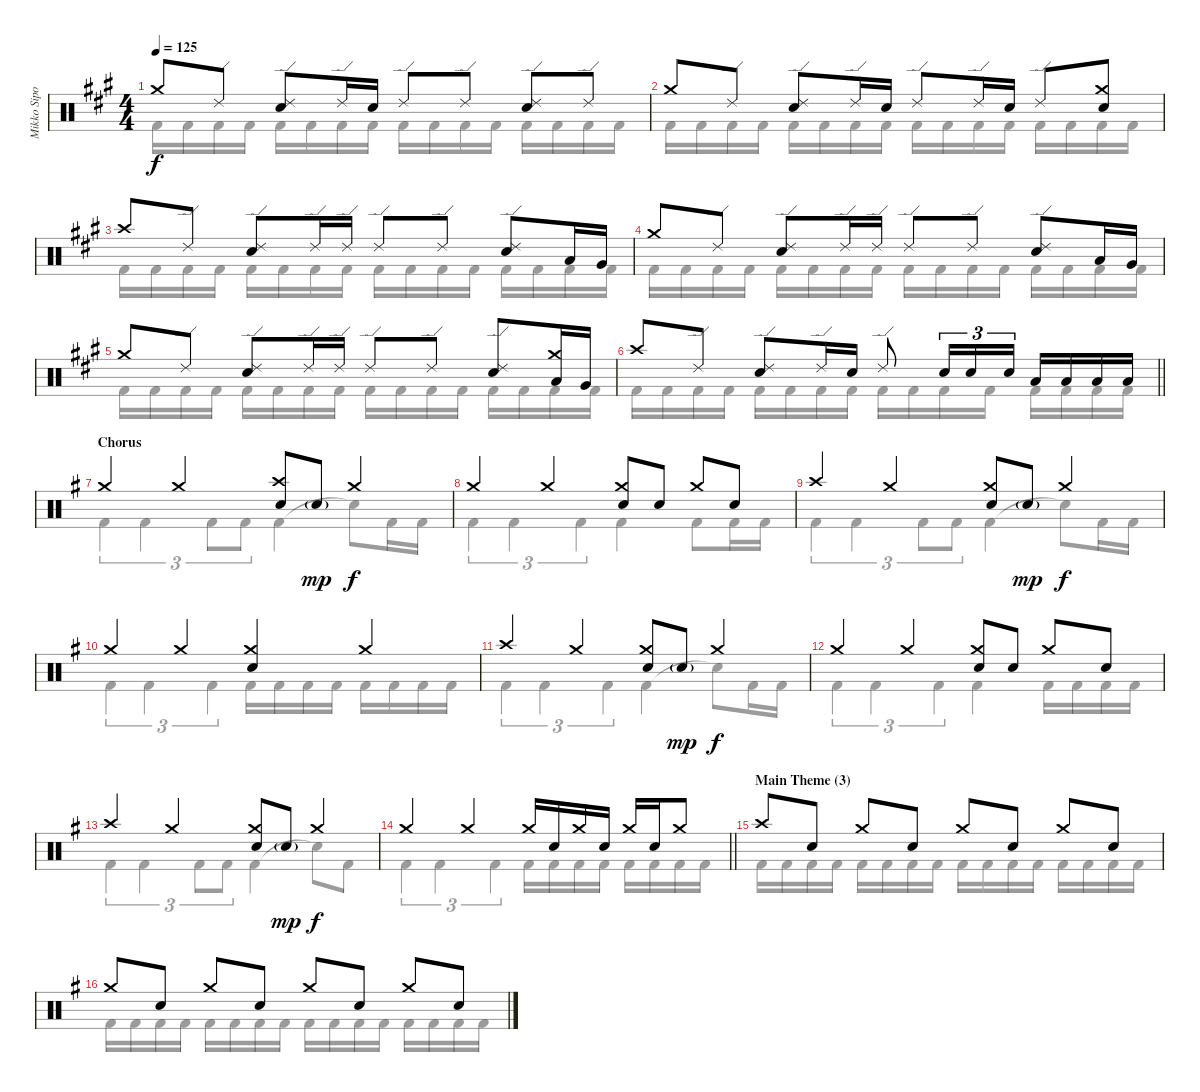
\track ("Mikko Sipola (drums)" "Mikko Sipo") {instrument percussion}
\staff {score}
\articulation defaults
\voice
\ts (4 4)
\tempo 125
\clef neutral
\ks f#minor "Crash medium (hit)".8{dy f} "Ride (edge) 2".8
("Ride (edge) 2" "Electric Snare (hit)").8 "Ride (edge) 2".16 "Electric Snare (hit)".16 "Ride (edge) 2".8 "Ride (edge) 2".8 ("Ride (edge) 2" "Electric Snare (hit)").8 "Ride (edge) 2".8 |
"Crash medium (hit)".8 "Ride (edge) 2".8 ("Ride (edge) 2" "Electric Snare (hit)").8 "Ride (edge) 2".16 "Electric Snare (hit)".16 "Ride (edge) 2".8 "Ride (edge) 2".16 "Electric Snare (hit)".16 "Ride (edge) 2".8 ("Crash medium (hit)" "Electric Snare (hit)").8 |
"Crash high (hit)".8 "Ride (edge) 2".8 ("Ride (edge) 2" "Electric Snare (hit)").8 "Ride (edge) 2".16 "Ride (edge) 2".16 "Ride (edge) 2".8 "Ride (edge) 2".8 ("Ride (edge) 2" "Electric Snare (hit)").8 "Low Tom (hit)".16 "Very Low Tom (hit)".16 |
"Crash medium (hit)".8 "Ride (edge) 2".8 ("Ride (edge) 2" "Electric Snare (hit)").8 "Ride (edge) 2".16 "Ride (edge) 2".16 "Ride (edge) 2".8 "Ride (edge) 2".8 ("Ride (edge) 2" "Electric Snare (hit)").8 "Low Tom (hit)".16 "Very Low Tom (hit)".16 |
"Crash medium (hit)".8 "Ride (edge) 2".8 ("Ride (edge) 2" "Electric Snare (hit)").8 "Ride (edge) 2".16 "Ride (edge) 2".16 "Ride (edge) 2".8 "Ride (edge) 2".8 ("Ride (edge) 2" "Electric Snare (hit)").8 ("Crash medium (hit)" "Low Tom (hit)").16 "Very Low Tom (hit)".16 |
\barLineRight lightlight "Crash high (hit)".8 "Ride (edge) 2".8
("Ride (edge) 2" "Electric Snare (hit)").8 "Ride (edge) 2".16 "Electric Snare (hit)".16 "Ride (edge) 2".8 "Electric Snare (hit)".16{tu (3 2)} "Electric Snare (hit)".16{tu (3 2)} "Electric Snare (hit)".16{tu (3 2)} "Low Tom (hit)".16 "Low Tom (hit)".16 "Low Tom (hit)".16 "Low Tom (hit)".16 |
\section ("" "Chorus")
\ks eminor "Crash medium (hit)".4 "Crash medium (hit)".4
("Crash high (hit)" "Electric Snare (hit)").8 "Electric Snare (hit)"{g}.8{dy mp} "Crash medium (hit)".4{dy f} |
"Crash medium (hit)".4 "Crash medium (hit)".4 ("Crash medium (hit)" "Electric Snare (hit)").8 "Electric Snare (hit)".8 "Crash medium (hit)".8 "Electric Snare (hit)".8 |
"Crash high (hit)".4 "Crash medium (hit)".4 ("Crash medium (hit)" "Electric Snare (hit)").8 "Electric Snare (hit)"{g}.8{dy mp} "Crash medium (hit)".4{dy f} |
"Crash medium (hit)".4 "Crash medium (hit)".4 ("Crash medium (hit)" "Electric Snare (hit)").4 "Crash medium (hit)".4 |
"Crash high (hit)".4 "Crash medium (hit)".4 ("Crash medium (hit)" "Electric Snare (hit)").8 "Electric Snare (hit)"{g}.8{dy mp} "Crash medium (hit)".4{dy f} |
"Crash medium (hit)".4 "Crash medium (hit)".4 ("Crash medium (hit)" "Electric Snare (hit)").8 "Electric Snare (hit)".8 "Crash medium (hit)".8 "Electric Snare (hit)".8 |
"Crash high (hit)".4 "Crash medium (hit)".4 ("Crash medium (hit)" "Electric Snare (hit)").8 "Electric Snare (hit)"{g}.8{dy mp} "Crash medium (hit)".4{dy f} |
\barLineRight lightlight "Crash medium (hit)".4 "Crash medium (hit)".4 "Crash medium (hit)".16 "Electric Snare (hit)".16 "Crash medium (hit)".16 "Electric Snare (hit)".16 "Crash medium (hit)".16 "Electric Snare (hit)".16 "Crash medium (hit)".8
|
\section ("" "Main Theme (3)")
\ks g "Crash high (hit)".8 "Electric Snare (hit)".8 "Crash medium (hit)".8 "Electric Snare (hit)".8 "Crash medium (hit)".8 "Electric Snare (hit)".8 "Crash medium (hit)".8 "Electric Snare (hit)".8
|
"Crash medium (hit)".8 "Electric Snare (hit)".8 "Crash medium (hit)".8 "Electric Snare (hit)".8 "Crash medium (hit)".8 "Electric Snare (hit)".8 "Crash medium (hit)".8 "Electric Snare (hit)".8
\voice
\clef neutral
\ottava regular
\simile none
\ks f#minor "Kick (hit) 2".16{dy f} "Kick (hit) 2".16 "Kick (hit) 2".16 "Kick (hit) 2".16 "Kick (hit) 2".16 "Kick (hit) 2".16 "Kick (hit) 2".16 "Kick (hit) 2".16 "Kick (hit) 2".16 "Kick (hit) 2".16 "Kick (hit) 2".16 "Kick (hit) 2".16 "Kick (hit) 2".16 "Kick (hit) 2".16 "Kick (hit) 2".16 "Kick (hit) 2".16
|
"Kick (hit) 2".16 "Kick (hit) 2".16 "Kick (hit) 2".16 "Kick (hit) 2".16 "Kick (hit) 2".16 "Kick (hit) 2".16 "Kick (hit) 2".16 "Kick (hit) 2".16 "Kick (hit) 2".16 "Kick (hit) 2".16 "Kick (hit) 2".16 "Kick (hit) 2".16 "Kick (hit) 2".16 "Kick (hit) 2".16 "Kick (hit) 2".16 "Kick (hit) 2".16 |
"Kick (hit) 2".16 "Kick (hit) 2".16 "Kick (hit) 2".16 "Kick (hit) 2".16 "Kick (hit) 2".16 "Kick (hit) 2".16 "Kick (hit) 2".16 "Kick (hit) 2".16 "Kick (hit) 2".16 "Kick (hit) 2".16 "Kick (hit) 2".16 "Kick (hit) 2".16 "Kick (hit) 2".16 "Kick (hit) 2".16 "Kick (hit) 2".16 "Kick (hit) 2".16 |
"Kick (hit) 2".16 "Kick (hit) 2".16 "Kick (hit) 2".16 "Kick (hit) 2".16 "Kick (hit) 2".16 "Kick (hit) 2".16 "Kick (hit) 2".16 "Kick (hit) 2".16 "Kick (hit) 2".16 "Kick (hit) 2".16 "Kick (hit) 2".16 "Kick (hit) 2".16 "Kick (hit) 2".16 "Kick (hit) 2".16 "Kick (hit) 2".16 "Kick (hit) 2".16 |
"Kick (hit) 2".16 "Kick (hit) 2".16 "Kick (hit) 2".16 "Kick (hit) 2".16 "Kick (hit) 2".16 "Kick (hit) 2".16 "Kick (hit) 2".16 "Kick (hit) 2".16 "Kick (hit) 2".16 "Kick (hit) 2".16 "Kick (hit) 2".16 "Kick (hit) 2".16 "Kick (hit) 2".16 "Kick (hit) 2".16 "Kick (hit) 2".16 "Kick (hit) 2".16 |
\barLineRight lightlight "Kick (hit) 2".16 "Kick (hit) 2".16 "Kick (hit) 2".16 "Kick (hit) 2".16 "Kick (hit) 2".16 "Kick (hit) 2".16 "Kick (hit) 2".16 "Kick (hit) 2".16 "Kick (hit) 2".16 "Kick (hit) 2".16 "Kick (hit) 2".16 "Kick (hit) 2".16 "Kick (hit) 2".16 "Kick (hit) 2".16 "Kick (hit) 2".16 "Kick (hit) 2".16
|
\ks eminor "Kick (hit) 2".4{tu (3 2)} "Kick (hit) 2".4{tu (3 2)} "Kick (hit) 2".8{tu (3 2)} "Kick (hit) 2".8{tu (3 2)} "Kick (hit) 2".4 "Snare (hit)"{t}.8 "Kick (hit) 2".16 "Kick (hit) 2".16
|
"Kick (hit) 2".4{tu (3 2)} "Kick (hit) 2".4{tu (3 2)} "Kick (hit) 2".4{tu (3 2)} "Kick (hit) 2".4 "Kick (hit) 2".8 "Kick (hit) 2".16 "Kick (hit) 2".16 |
"Kick (hit) 2".4{tu (3 2)} "Kick (hit) 2".4{tu (3 2)} "Kick (hit) 2".8{tu (3 2)} "Kick (hit) 2".8{tu (3 2)} "Kick (hit) 2".4 "Snare (hit)"{t}.8 "Kick (hit) 2".16 "Kick (hit) 2".16 |
"Kick (hit) 2".4{tu (3 2)} "Kick (hit) 2".4{tu (3 2)} "Kick (hit) 2".4{tu (3 2)} "Kick (hit) 2".16 "Kick (hit) 2".16 "Kick (hit) 2".16 "Kick (hit) 2".16 "Kick (hit) 2".16 "Kick (hit) 2".16 "Kick (hit) 2".16 "Kick (hit) 2".16 |
"Kick (hit) 2".4{tu (3 2)} "Kick (hit) 2".4{tu (3 2)} "Kick (hit) 2".4{tu (3 2)} "Kick (hit) 2".4 "Snare (hit)"{t}.8 "Kick (hit) 2".16 "Kick (hit) 2".16 |
"Kick (hit) 2".4{tu (3 2)} "Kick (hit) 2".4{tu (3 2)} "Kick (hit) 2".4{tu (3 2)} "Kick (hit) 2".4 "Kick (hit) 2".16 "Kick (hit) 2".16 "Kick (hit) 2".16 "Kick (hit) 2".16 |
"Kick (hit) 2".4{tu (3 2)} "Kick (hit) 2".4{tu (3 2)} "Kick (hit) 2".8{tu (3 2)} "Kick (hit) 2".8{tu (3 2)} "Kick (hit) 2".4 "Snare (hit)"{t}.8 "Kick (hit) 2".8 |
\barLineRight lightlight "Kick (hit) 2".4{tu (3 2)} "Kick (hit) 2".4{tu (3 2)} "Kick (hit) 2".4{tu (3 2)} "Kick (hit) 2".16 "Kick (hit) 2".16 "Kick (hit) 2".16 "Kick (hit) 2".16 "Kick (hit) 2".16 "Kick (hit) 2".16 "Kick (hit) 2".16 "Kick (hit) 2".16
|
\ks g "Kick (hit) 2".16 "Kick (hit) 2".16 "Kick (hit) 2".16 "Kick (hit) 2".16 "Kick (hit) 2".16 "Kick (hit) 2".16 "Kick (hit) 2".16 "Kick (hit) 2".16 "Kick (hit) 2".16 "Kick (hit) 2".16 "Kick (hit) 2".16 "Kick (hit) 2".16 "Kick (hit) 2".16 "Kick (hit) 2".16 "Kick (hit) 2".16 "Kick (hit) 2".16
|
"Kick (hit) 2".16 "Kick (hit) 2".16 "Kick (hit) 2".16 "Kick (hit) 2".16 "Kick (hit) 2".16 "Kick (hit) 2".16 "Kick (hit) 2".16 "Kick (hit) 2".16 "Kick (hit) 2".16 "Kick (hit) 2".16 "Kick (hit) 2".16 "Kick (hit) 2".16 "Kick (hit) 2".16 "Kick (hit) 2".16 "Kick (hit) 2".16 "Kick (hit) 2".16
